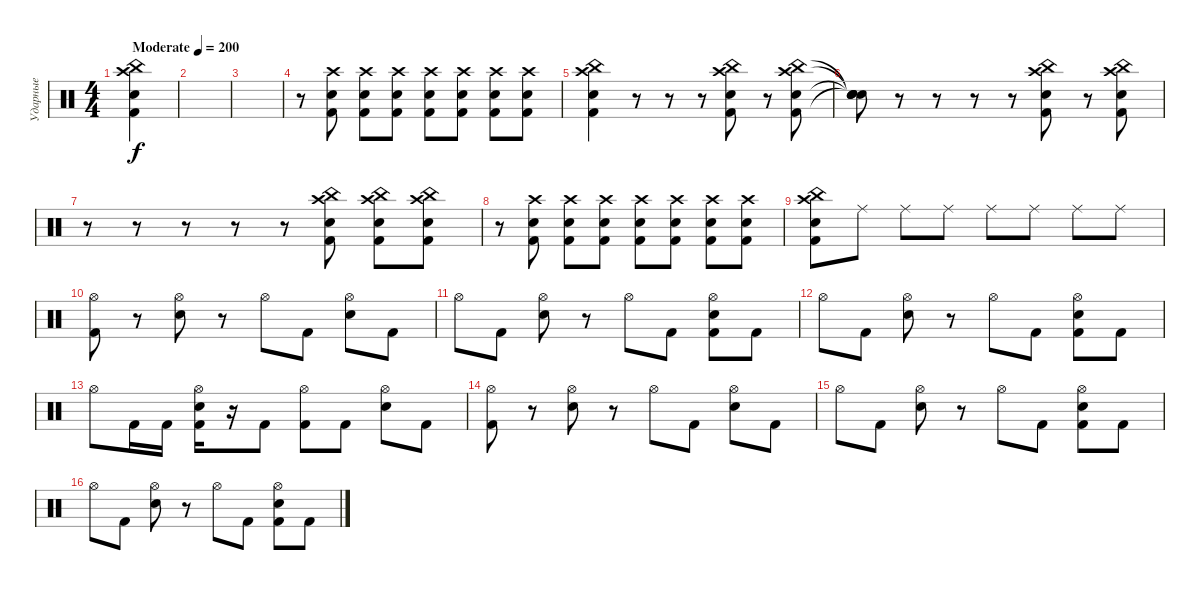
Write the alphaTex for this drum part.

\track ("Ударные" "Ударные") {instrument percussion}
\staff {score}
\articulation defaults
\ts (4 4)
\tempo (200 "Moderate")
\clef neutral
\ks c
("Kick (hit) 2" "Electric Snare (hit)" "Crash high (hit)" "China (hit)").4{dy f} |
|
|
r.8 ("Electric Snare (hit)" "Kick (hit) 2" "Crash high (hit)").8 ("Crash high (hit)" "Kick (hit) 2" "Electric Snare (hit)").8 ("Electric Snare (hit)" "Kick (hit) 2" "Crash high (hit)").8 ("Crash high (hit)" "Kick (hit) 2" "Electric Snare (hit)").8 ("Electric Snare (hit)" "Kick (hit) 2" "Crash high (hit)").8 ("Crash high (hit)" "Kick (hit) 2" "Electric Snare (hit)").8 ("Electric Snare (hit)" "Kick (hit) 2" "Crash high (hit)").8 |
("Kick (hit) 2" "Electric Snare (hit)" "Crash high (hit)" "China (hit)").4 r.8 r.8 r.8 ("Kick (hit) 2" "Electric Snare (hit)" "Crash high (hit)" "China (hit)").8 r.8 ("China (hit)" "Crash high (hit)" "Electric Snare (hit)" "Kick (hit) 2").8 |
("Snare (hit)"{t} "Snare (hit)"{t} "Snare (hit)"{t} "Snare (hit)"{t}).8 r.8 r.8 r.8 r.8 ("Crash high (hit)" "China (hit)" "Kick (hit) 2" "Electric Snare (hit)").8 r.8 ("China (hit)" "Crash high (hit)" "Kick (hit) 2" "Electric Snare (hit)").8 |
r.8 r.8 r.8 r.8 r.8 ("Electric Snare (hit)" "Kick (hit) 2" "Crash high (hit)" "China (hit)").8 ("China (hit)" "Crash high (hit)" "Kick (hit) 2" "Electric Snare (hit)").8 ("Electric Snare (hit)" "Kick (hit) 2" "Crash high (hit)" "China (hit)").8 |
r.8 ("Electric Snare (hit)" "Kick (hit) 2" "Crash high (hit)").8 ("Crash high (hit)" "Kick (hit) 2" "Electric Snare (hit)").8 ("Electric Snare (hit)" "Kick (hit) 2" "Crash high (hit)").8 ("Crash high (hit)" "Kick (hit) 2" "Electric Snare (hit)").8 ("Electric Snare (hit)" "Kick (hit) 2" "Crash high (hit)").8 ("Crash high (hit)" "Kick (hit) 2" "Electric Snare (hit)").8 ("Electric Snare (hit)" "Kick (hit) 2" "Crash high (hit)").8 |
("Kick (hit) 2" "Crash high (hit)" "China (hit)" "Electric Snare (hit)").8 "Ride (middle)".8 "Ride (middle)".8 "Ride (middle)".8 "Ride (middle)".8 "Ride (middle)".8 "Ride (middle)".8 "Ride (middle)".8 |
("Kick (hit) 2" "Hi-Hat (open)").8 r.8 ("Electric Snare (hit)" "Hi-Hat (open)").8 r.8 "Hi-Hat (open)".8 "Kick (hit) 2".8 ("Electric Snare (hit)" "Hi-Hat (open)").8 "Kick (hit) 2".8 |
"Hi-Hat (open)".8 "Kick (hit) 2".8 ("Electric Snare (hit)" "Hi-Hat (open)").8 r.8 "Hi-Hat (open)".8 "Kick (hit) 2".8 ("Kick (hit) 2" "Hi-Hat (open)" "Electric Snare (hit)").8 "Kick (hit) 2".8 |
"Hi-Hat (open)".8 "Kick (hit) 2".8 ("Electric Snare (hit)" "Hi-Hat (open)").8 r.8 "Hi-Hat (open)".8 "Kick (hit) 2".8 ("Kick (hit) 2" "Hi-Hat (open)" "Electric Snare (hit)").8 "Kick (hit) 2".8 |
"Hi-Hat (open)".8 "Kick (hit) 2".16 "Kick (hit) 2".16 ("Kick (hit) 2" "Electric Snare (hit)" "Hi-Hat (open)").16 r.16 "Kick (hit) 2".8 ("Kick (hit) 2" "Hi-Hat (open)").8 "Kick (hit) 2".8 ("Electric Snare (hit)" "Hi-Hat (open)").8 "Kick (hit) 2".8 |
("Kick (hit) 2" "Hi-Hat (open)").8 r.8 ("Electric Snare (hit)" "Hi-Hat (open)").8 r.8 "Hi-Hat (open)".8 "Kick (hit) 2".8 ("Electric Snare (hit)" "Hi-Hat (open)").8 "Kick (hit) 2".8 |
"Hi-Hat (open)".8 "Kick (hit) 2".8 ("Electric Snare (hit)" "Hi-Hat (open)").8 r.8 "Hi-Hat (open)".8 "Kick (hit) 2".8 ("Kick (hit) 2" "Hi-Hat (open)" "Electric Snare (hit)").8 "Kick (hit) 2".8 |
"Hi-Hat (open)".8 "Kick (hit) 2".8 ("Electric Snare (hit)" "Hi-Hat (open)").8 r.8 "Hi-Hat (open)".8 "Kick (hit) 2".8 ("Kick (hit) 2" "Hi-Hat (open)" "Electric Snare (hit)").8 "Kick (hit) 2".8
